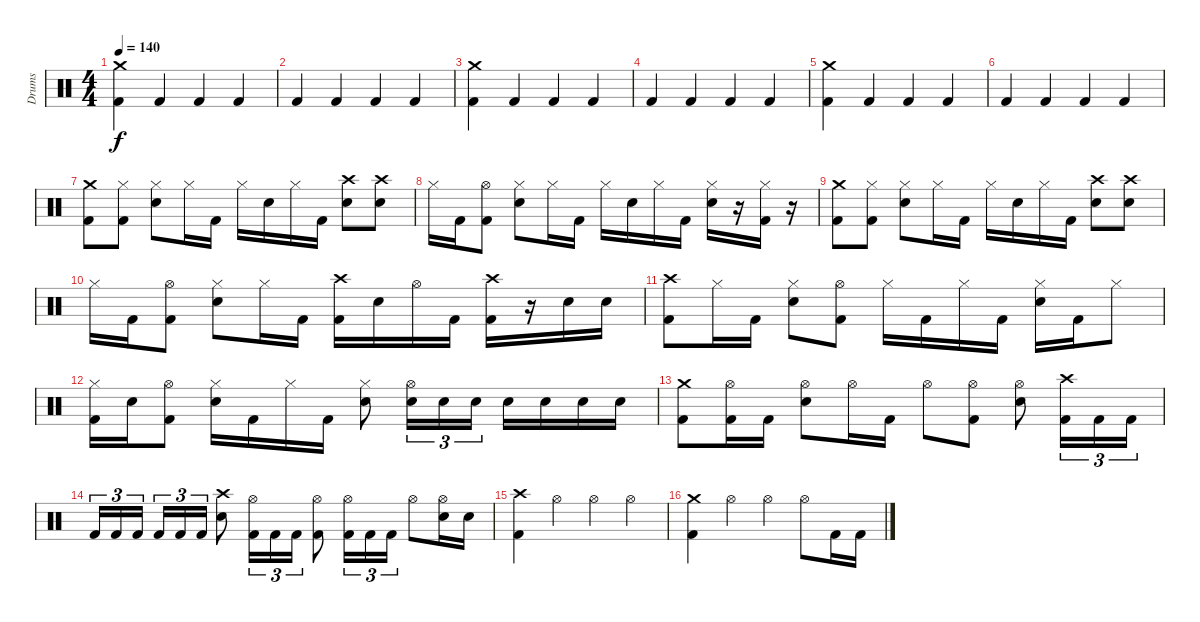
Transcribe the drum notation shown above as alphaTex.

\track ("Drums" "Drums") {instrument percussion}
\staff {score}
\articulation defaults
\ts (4 4)
\tempo 140
\clef neutral
\ks c
("Kick (hit) 2" "Crash medium (hit)").4{dy f} "Kick (hit) 2".4 "Kick (hit) 2".4 "Kick (hit) 2".4 |
"Kick (hit) 2".4 "Kick (hit) 2".4 "Kick (hit) 2".4 "Kick (hit) 2".4 |
("Kick (hit) 2" "Crash medium (hit)").4 "Kick (hit) 2".4 "Kick (hit) 2".4 "Kick (hit) 2".4 |
"Kick (hit) 2".4 "Kick (hit) 2".4 "Kick (hit) 2".4 "Kick (hit) 2".4 |
("Kick (hit) 2" "Crash medium (hit)").4 "Kick (hit) 2".4 "Kick (hit) 2".4 "Kick (hit) 2".4 |
"Kick (hit) 2".4 "Kick (hit) 2".4 "Kick (hit) 2".4 "Kick (hit) 2".4 |
("Kick (hit) 2" "Crash medium (hit)").8 ("Kick (hit) 2" "Hi-Hat (closed)").8 ("Electric Snare (hit)" "Hi-Hat (closed)").8 "Hi-Hat (closed)".16 "Kick (hit) 2".16 "Hi-Hat (closed)".16 "Electric Snare (hit)".16 "Hi-Hat (closed)".16 "Kick (hit) 2".16 ("Electric Snare (hit)" "Crash high (hit)").8 ("Electric Snare (hit)" "Crash high (hit)").8 |
"Hi-Hat (closed)".16 "Kick (hit) 2".16 ("Kick (hit) 2" "Hi-Hat (open)").8 ("Electric Snare (hit)" "Hi-Hat (closed)").8 "Hi-Hat (closed)".16 "Kick (hit) 2".16 "Hi-Hat (closed)".16 "Electric Snare (hit)".16 "Hi-Hat (closed)".16 "Kick (hit) 2".16 ("Hi-Hat (closed)" "Electric Snare (hit)").16 r.16 ("Hi-Hat (closed)" "Kick (hit) 2").16 r.16 |
("Kick (hit) 2" "Crash medium (hit)").8 ("Kick (hit) 2" "Hi-Hat (closed)").8 ("Electric Snare (hit)" "Hi-Hat (closed)").8 "Hi-Hat (closed)".16 "Kick (hit) 2".16 "Hi-Hat (closed)".16 "Electric Snare (hit)".16 "Hi-Hat (closed)".16 "Kick (hit) 2".16 ("Electric Snare (hit)" "Crash high (hit)").8 ("Electric Snare (hit)" "Crash high (hit)").8 |
"Hi-Hat (closed)".16 "Kick (hit) 2".16 ("Kick (hit) 2" "Hi-Hat (open)").8 ("Electric Snare (hit)" "Hi-Hat (closed)").8 "Hi-Hat (closed)".16 "Kick (hit) 2".16 ("Kick (hit) 2" "Crash high (hit)").16 "Electric Snare (hit)".16 "Hi-Hat (open)".16 "Kick (hit) 2".16 ("Kick (hit) 2" "Crash high (hit)").16 r.16 "Electric Snare (hit)".16 "Electric Snare (hit)".16 |
("Kick (hit) 2" "Crash high (hit)").8 "Hi-Hat (closed)".16 "Kick (hit) 2".16 ("Electric Snare (hit)" "Hi-Hat (closed)").8 ("Kick (hit) 2" "Hi-Hat (open)").8 "Hi-Hat (closed)".16 "Kick (hit) 2".16 "Hi-Hat (closed)".16 "Kick (hit) 2".16 ("Electric Snare (hit)" "Hi-Hat (closed)").16 "Kick (hit) 2".16 "Hi-Hat (closed)".8 |
("Kick (hit) 2" "Hi-Hat (closed)").16 "Electric Snare (hit)".16 ("Kick (hit) 2" "Hi-Hat (open)").8 ("Electric Snare (hit)" "Hi-Hat (closed)").16 "Kick (hit) 2".16 "Hi-Hat (closed)".16 "Kick (hit) 2".16 ("Electric Snare (hit)" "Hi-Hat (closed)").8 ("Electric Snare (hit)" "Hi-Hat (open)").16{tu (3 2)} "Electric Snare (hit)".16{tu (3 2)} "Electric Snare (hit)".16{tu (3 2)} "Electric Snare (hit)".16 "Electric Snare (hit)".16 "Electric Snare (hit)".16 "Electric Snare (hit)".16 |
("Kick (hit) 2" "Crash medium (hit)").8 ("Kick (hit) 2" "Hi-Hat (open)").16 "Kick (hit) 2".16 ("Electric Snare (hit)" "Hi-Hat (open)").8 "Hi-Hat (open)".16 "Kick (hit) 2".16 "Hi-Hat (open)".8 ("Kick (hit) 2" "Hi-Hat (open)").8 ("Electric Snare (hit)" "Hi-Hat (open)").8 ("Kick (hit) 2" "Crash high (hit)").16{tu (3 2)} "Kick (hit) 2".16{tu (3 2)} "Kick (hit) 2".16{tu (3 2)} |
"Kick (hit) 2".16{tu (3 2)} "Kick (hit) 2".16{tu (3 2)} "Kick (hit) 2".16{tu (3 2)} "Kick (hit) 2".16{tu (3 2)} "Kick (hit) 2".16{tu (3 2)} "Kick (hit) 2".16{tu (3 2)} ("Electric Snare (hit)" "Crash high (hit)").8 ("Kick (hit) 2" "Hi-Hat (open)").16{tu (3 2)} "Kick (hit) 2".16{tu (3 2)} "Kick (hit) 2".16{tu (3 2)} ("Kick (hit) 2" "Hi-Hat (open)").8 ("Kick (hit) 2" "Hi-Hat (open)").16{tu (3 2)} "Kick (hit) 2".16{tu (3 2)} "Kick (hit) 2".16{tu (3 2)} "Hi-Hat (open)".8 ("Electric Snare (hit)" "Hi-Hat (open)").16 "Electric Snare (hit)".16 |
("Crash high (hit)" "Kick (hit) 2").4 "Hi-Hat (open)".4 "Hi-Hat (open)".4 "Hi-Hat (open)".4 |
("Kick (hit) 2" "Crash medium (hit)").4 "Hi-Hat (open)".4 "Hi-Hat (open)".4 "Hi-Hat (open)".8 "Kick (hit) 2".16 "Kick (hit) 2".16
